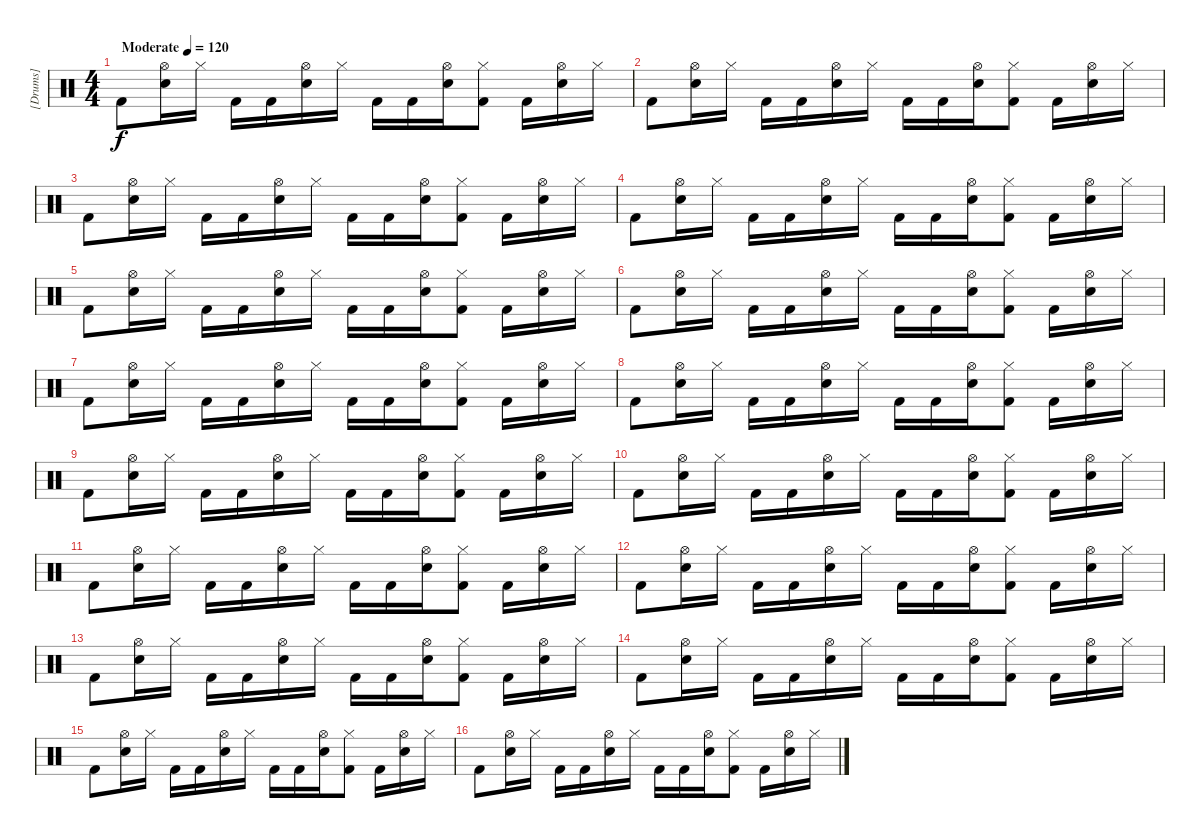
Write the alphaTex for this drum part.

\track ("[Drums]" "[Drums]") {instrument percussion}
\staff {score}
\articulation defaults
\ts (4 4)
\tempo (120 "Moderate")
\clef neutral
\ks c "Kick (hit) 2".8{dy f}
("Hi-Hat (open)" "Electric Snare (hit)").16 "Hi-Hat (closed)".16 "Kick (hit) 2".16 "Kick (hit) 2".16 ("Hi-Hat (open)" "Electric Snare (hit)").16 "Hi-Hat (closed)".16 "Kick (hit) 2".16 "Kick (hit) 2".16 ("Hi-Hat (open)" "Electric Snare (hit)").16 ("Hi-Hat (closed)" "Kick (hit) 2").8 "Kick (hit) 2".16 ("Hi-Hat (open)" "Electric Snare (hit)").16 "Hi-Hat (closed)".16 |
"Kick (hit) 2".8 ("Hi-Hat (open)" "Electric Snare (hit)").16 "Hi-Hat (closed)".16 "Kick (hit) 2".16 "Kick (hit) 2".16 ("Hi-Hat (open)" "Electric Snare (hit)").16 "Hi-Hat (closed)".16 "Kick (hit) 2".16 "Kick (hit) 2".16 ("Hi-Hat (open)" "Electric Snare (hit)").16 ("Hi-Hat (closed)" "Kick (hit) 2").8 "Kick (hit) 2".16 ("Hi-Hat (open)" "Electric Snare (hit)").16 "Hi-Hat (closed)".16 |
"Kick (hit) 2".8 ("Hi-Hat (open)" "Electric Snare (hit)").16 "Hi-Hat (closed)".16 "Kick (hit) 2".16 "Kick (hit) 2".16 ("Hi-Hat (open)" "Electric Snare (hit)").16 "Hi-Hat (closed)".16 "Kick (hit) 2".16 "Kick (hit) 2".16 ("Hi-Hat (open)" "Electric Snare (hit)").16 ("Hi-Hat (closed)" "Kick (hit) 2").8 "Kick (hit) 2".16 ("Hi-Hat (open)" "Electric Snare (hit)").16 "Hi-Hat (closed)".16 |
"Kick (hit) 2".8 ("Hi-Hat (open)" "Electric Snare (hit)").16 "Hi-Hat (closed)".16 "Kick (hit) 2".16 "Kick (hit) 2".16 ("Hi-Hat (open)" "Electric Snare (hit)").16 "Hi-Hat (closed)".16 "Kick (hit) 2".16 "Kick (hit) 2".16 ("Hi-Hat (open)" "Electric Snare (hit)").16 ("Hi-Hat (closed)" "Kick (hit) 2").8 "Kick (hit) 2".16 ("Hi-Hat (open)" "Electric Snare (hit)").16 "Hi-Hat (closed)".16 |
"Kick (hit) 2".8 ("Hi-Hat (open)" "Electric Snare (hit)").16 "Hi-Hat (closed)".16 "Kick (hit) 2".16 "Kick (hit) 2".16 ("Hi-Hat (open)" "Electric Snare (hit)").16 "Hi-Hat (closed)".16 "Kick (hit) 2".16 "Kick (hit) 2".16 ("Hi-Hat (open)" "Electric Snare (hit)").16 ("Hi-Hat (closed)" "Kick (hit) 2").8 "Kick (hit) 2".16 ("Hi-Hat (open)" "Electric Snare (hit)").16 "Hi-Hat (closed)".16 |
"Kick (hit) 2".8 ("Hi-Hat (open)" "Electric Snare (hit)").16 "Hi-Hat (closed)".16 "Kick (hit) 2".16 "Kick (hit) 2".16 ("Hi-Hat (open)" "Electric Snare (hit)").16 "Hi-Hat (closed)".16 "Kick (hit) 2".16 "Kick (hit) 2".16 ("Hi-Hat (open)" "Electric Snare (hit)").16 ("Hi-Hat (closed)" "Kick (hit) 2").8 "Kick (hit) 2".16 ("Hi-Hat (open)" "Electric Snare (hit)").16 "Hi-Hat (closed)".16 |
"Kick (hit) 2".8 ("Hi-Hat (open)" "Electric Snare (hit)").16 "Hi-Hat (closed)".16 "Kick (hit) 2".16 "Kick (hit) 2".16 ("Hi-Hat (open)" "Electric Snare (hit)").16 "Hi-Hat (closed)".16 "Kick (hit) 2".16 "Kick (hit) 2".16 ("Hi-Hat (open)" "Electric Snare (hit)").16 ("Hi-Hat (closed)" "Kick (hit) 2").8 "Kick (hit) 2".16 ("Hi-Hat (open)" "Electric Snare (hit)").16 "Hi-Hat (closed)".16 |
"Kick (hit) 2".8 ("Hi-Hat (open)" "Electric Snare (hit)").16 "Hi-Hat (closed)".16 "Kick (hit) 2".16 "Kick (hit) 2".16 ("Hi-Hat (open)" "Electric Snare (hit)").16 "Hi-Hat (closed)".16 "Kick (hit) 2".16 "Kick (hit) 2".16 ("Hi-Hat (open)" "Electric Snare (hit)").16 ("Hi-Hat (closed)" "Kick (hit) 2").8 "Kick (hit) 2".16 ("Hi-Hat (open)" "Electric Snare (hit)").16 "Hi-Hat (closed)".16 |
"Kick (hit) 2".8 ("Hi-Hat (open)" "Electric Snare (hit)").16 "Hi-Hat (closed)".16 "Kick (hit) 2".16 "Kick (hit) 2".16 ("Hi-Hat (open)" "Electric Snare (hit)").16 "Hi-Hat (closed)".16 "Kick (hit) 2".16 "Kick (hit) 2".16 ("Hi-Hat (open)" "Electric Snare (hit)").16 ("Hi-Hat (closed)" "Kick (hit) 2").8 "Kick (hit) 2".16 ("Hi-Hat (open)" "Electric Snare (hit)").16 "Hi-Hat (closed)".16 |
"Kick (hit) 2".8 ("Hi-Hat (open)" "Electric Snare (hit)").16 "Hi-Hat (closed)".16 "Kick (hit) 2".16 "Kick (hit) 2".16 ("Hi-Hat (open)" "Electric Snare (hit)").16 "Hi-Hat (closed)".16 "Kick (hit) 2".16 "Kick (hit) 2".16 ("Hi-Hat (open)" "Electric Snare (hit)").16 ("Hi-Hat (closed)" "Kick (hit) 2").8 "Kick (hit) 2".16 ("Hi-Hat (open)" "Electric Snare (hit)").16 "Hi-Hat (closed)".16 |
"Kick (hit) 2".8 ("Hi-Hat (open)" "Electric Snare (hit)").16 "Hi-Hat (closed)".16 "Kick (hit) 2".16 "Kick (hit) 2".16 ("Hi-Hat (open)" "Electric Snare (hit)").16 "Hi-Hat (closed)".16 "Kick (hit) 2".16 "Kick (hit) 2".16 ("Hi-Hat (open)" "Electric Snare (hit)").16 ("Hi-Hat (closed)" "Kick (hit) 2").8 "Kick (hit) 2".16 ("Hi-Hat (open)" "Electric Snare (hit)").16 "Hi-Hat (closed)".16 |
"Kick (hit) 2".8 ("Hi-Hat (open)" "Electric Snare (hit)").16 "Hi-Hat (closed)".16 "Kick (hit) 2".16 "Kick (hit) 2".16 ("Hi-Hat (open)" "Electric Snare (hit)").16 "Hi-Hat (closed)".16 "Kick (hit) 2".16 "Kick (hit) 2".16 ("Hi-Hat (open)" "Electric Snare (hit)").16 ("Hi-Hat (closed)" "Kick (hit) 2").8 "Kick (hit) 2".16 ("Hi-Hat (open)" "Electric Snare (hit)").16 "Hi-Hat (closed)".16 |
"Kick (hit) 2".8 ("Hi-Hat (open)" "Electric Snare (hit)").16 "Hi-Hat (closed)".16 "Kick (hit) 2".16 "Kick (hit) 2".16 ("Hi-Hat (open)" "Electric Snare (hit)").16 "Hi-Hat (closed)".16 "Kick (hit) 2".16 "Kick (hit) 2".16 ("Hi-Hat (open)" "Electric Snare (hit)").16 ("Hi-Hat (closed)" "Kick (hit) 2").8 "Kick (hit) 2".16 ("Hi-Hat (open)" "Electric Snare (hit)").16 "Hi-Hat (closed)".16 |
"Kick (hit) 2".8 ("Hi-Hat (open)" "Electric Snare (hit)").16 "Hi-Hat (closed)".16 "Kick (hit) 2".16 "Kick (hit) 2".16 ("Hi-Hat (open)" "Electric Snare (hit)").16 "Hi-Hat (closed)".16 "Kick (hit) 2".16 "Kick (hit) 2".16 ("Hi-Hat (open)" "Electric Snare (hit)").16 ("Hi-Hat (closed)" "Kick (hit) 2").8 "Kick (hit) 2".16 ("Hi-Hat (open)" "Electric Snare (hit)").16 "Hi-Hat (closed)".16 |
"Kick (hit) 2".8 ("Hi-Hat (open)" "Electric Snare (hit)").16 "Hi-Hat (closed)".16 "Kick (hit) 2".16 "Kick (hit) 2".16 ("Hi-Hat (open)" "Electric Snare (hit)").16 "Hi-Hat (closed)".16 "Kick (hit) 2".16 "Kick (hit) 2".16 ("Hi-Hat (open)" "Electric Snare (hit)").16 ("Hi-Hat (closed)" "Kick (hit) 2").8 "Kick (hit) 2".16 ("Hi-Hat (open)" "Electric Snare (hit)").16 "Hi-Hat (closed)".16 |
"Kick (hit) 2".8 ("Hi-Hat (open)" "Electric Snare (hit)").16 "Hi-Hat (closed)".16 "Kick (hit) 2".16 "Kick (hit) 2".16 ("Hi-Hat (open)" "Electric Snare (hit)").16 "Hi-Hat (closed)".16 "Kick (hit) 2".16 "Kick (hit) 2".16 ("Hi-Hat (open)" "Electric Snare (hit)").16 ("Hi-Hat (closed)" "Kick (hit) 2").8 "Kick (hit) 2".16 ("Hi-Hat (open)" "Electric Snare (hit)").16 "Hi-Hat (closed)".16
